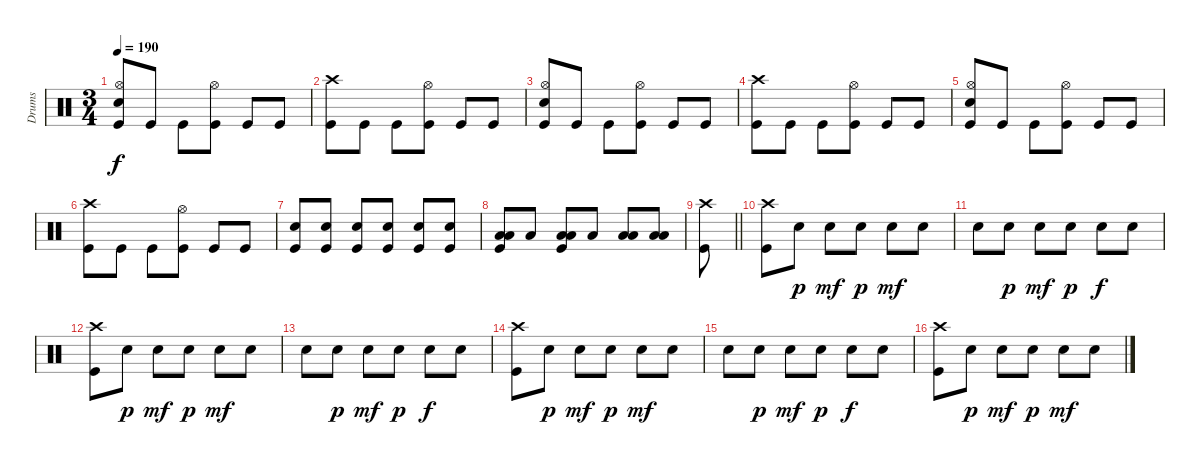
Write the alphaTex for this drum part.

\track ("Drums" "Drums") {instrument percussion}
\staff {score}
\articulation defaults
\ts (3 4)
\tempo 190
\clef neutral
\ks c
("Kick (hit)" "Hi-Hat (open)" "Snare (hit) 2").8{dy f} "Kick (hit)".8 "Kick (hit)".8 ("Kick (hit)" "Hi-Hat (open)").8 "Kick (hit)".8 "Kick (hit)".8 |
("Crash high (hit)" "Kick (hit)").8 "Kick (hit)".8 "Kick (hit)".8 ("Hi-Hat (open)" "Kick (hit)").8 "Kick (hit)".8 "Kick (hit)".8 |
("Kick (hit)" "Hi-Hat (open)" "Snare (hit) 2").8 "Kick (hit)".8 "Kick (hit)".8 ("Kick (hit)" "Hi-Hat (open)").8 "Kick (hit)".8 "Kick (hit)".8 |
("Crash high (hit)" "Kick (hit)").8 "Kick (hit)".8 "Kick (hit)".8 ("Hi-Hat (open)" "Kick (hit)").8 "Kick (hit)".8 "Kick (hit)".8 |
("Kick (hit)" "Hi-Hat (open)" "Snare (hit) 2").8 "Kick (hit)".8 "Kick (hit)".8 ("Kick (hit)" "Hi-Hat (open)").8 "Kick (hit)".8 "Kick (hit)".8 |
("Crash high (hit)" "Kick (hit)").8 "Kick (hit)".8 "Kick (hit)".8 ("Hi-Hat (open)" "Kick (hit)").8 "Kick (hit)".8 "Kick (hit)".8 |
("Kick (hit)" "Snare (hit) 2").8 ("Kick (hit)" "Snare (hit) 2").8 ("Kick (hit)" "Snare (hit) 2").8 ("Kick (hit)" "Snare (hit) 2").8 ("Kick (hit)" "Snare (hit) 2").8 ("Kick (hit)" "Snare (hit) 2").8 |
("Kick (hit)" "Low Tom (hit)" "Low Floor Tom (hit)").8 "Low Floor Tom (hit)".8 ("Kick (hit)" "Low Tom (hit)" "Low Floor Tom (hit)").8 "Low Floor Tom (hit)".8 ("Low Tom (hit)" "Low Floor Tom (hit)").8 ("Low Tom (hit)" "Low Floor Tom (hit)").8 |
\barLineRight lightlight
("Crash high (hit)" "Kick (hit)").8 |
("Crash high (hit)" "Kick (hit)").8 "Snare (hit) 2".8{dy p} "Snare (hit) 2".8{dy mf} "Snare (hit) 2".8{dy p} "Snare (hit) 2".8{dy mf} "Snare (hit) 2".8 |
"Snare (hit) 2".8 "Snare (hit) 2".8{dy p} "Snare (hit) 2".8{dy mf} "Snare (hit) 2".8{dy p} "Snare (hit) 2".8{dy f} "Snare (hit) 2".8 |
("Crash high (hit)" "Kick (hit)").8 "Snare (hit) 2".8{dy p} "Snare (hit) 2".8{dy mf} "Snare (hit) 2".8{dy p} "Snare (hit) 2".8{dy mf} "Snare (hit) 2".8 |
"Snare (hit) 2".8 "Snare (hit) 2".8{dy p} "Snare (hit) 2".8{dy mf} "Snare (hit) 2".8{dy p} "Snare (hit) 2".8{dy f} "Snare (hit) 2".8 |
("Crash high (hit)" "Kick (hit)").8 "Snare (hit) 2".8{dy p} "Snare (hit) 2".8{dy mf} "Snare (hit) 2".8{dy p} "Snare (hit) 2".8{dy mf} "Snare (hit) 2".8 |
"Snare (hit) 2".8 "Snare (hit) 2".8{dy p} "Snare (hit) 2".8{dy mf} "Snare (hit) 2".8{dy p} "Snare (hit) 2".8{dy f} "Snare (hit) 2".8 |
("Crash high (hit)" "Kick (hit)").8 "Snare (hit) 2".8{dy p} "Snare (hit) 2".8{dy mf} "Snare (hit) 2".8{dy p} "Snare (hit) 2".8{dy mf} "Snare (hit) 2".8
